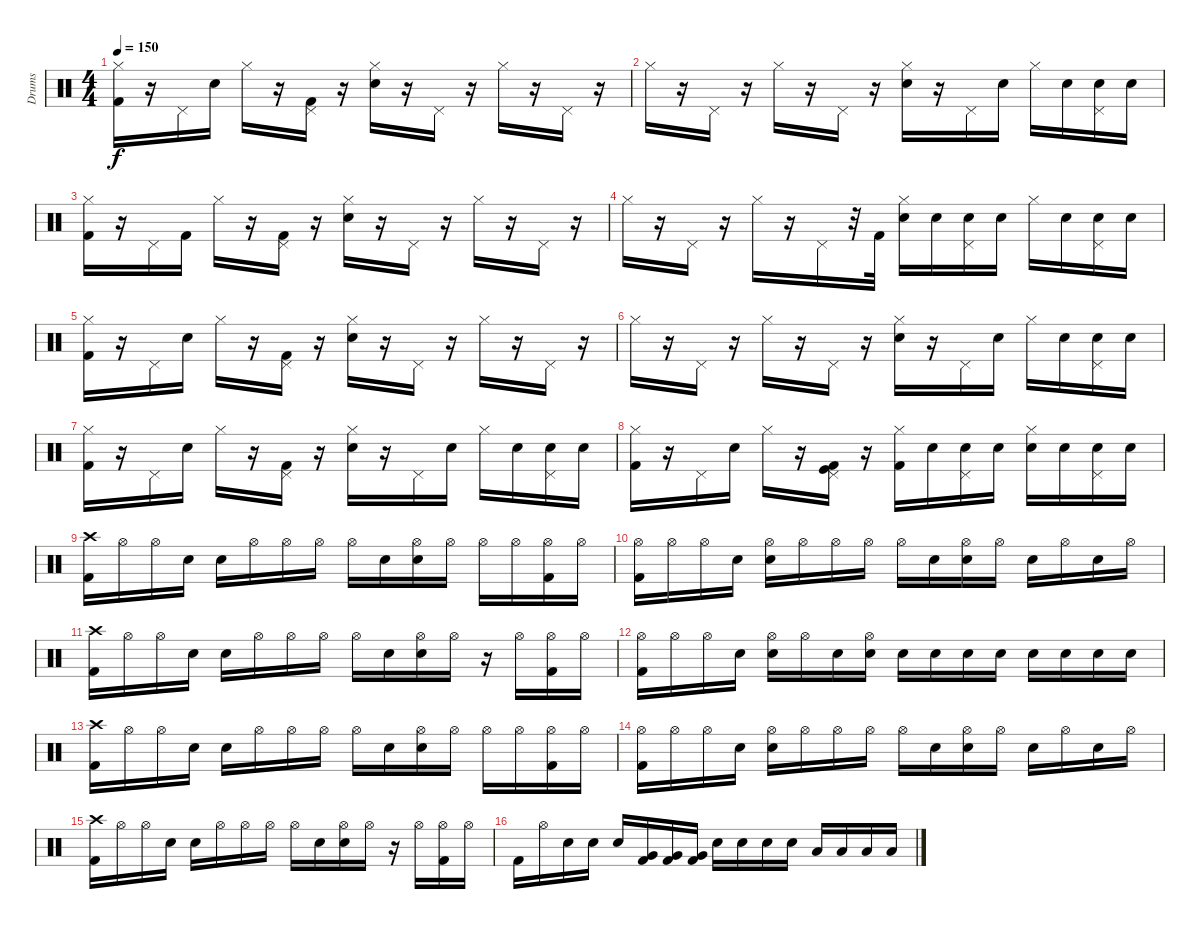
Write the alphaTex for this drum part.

\track ("Drums" "Drums") {instrument percussion}
\staff {score}
\articulation defaults
\ts (4 4)
\tempo 150
\clef neutral
\ks c
("Hi-Hat (closed)" "Kick (hit) 2").16{dy f} r.16 "Pedal Hi-Hat (hit)".16 "Electric Snare (hit)".16 "Hi-Hat (closed)".16 r.16 ("Pedal Hi-Hat (hit)" "Kick (hit) 2").16 r.16 ("Hi-Hat (closed)" "Electric Snare (hit)").16 r.16 "Pedal Hi-Hat (hit)".16 r.16 "Hi-Hat (closed)".16 r.16 "Pedal Hi-Hat (hit)".16 r.16 |
"Hi-Hat (closed)".16 r.16 "Pedal Hi-Hat (hit)".16 r.16 "Hi-Hat (closed)".16 r.16 "Pedal Hi-Hat (hit)".16 r.16 ("Hi-Hat (closed)" "Electric Snare (hit)").16 r.16 "Pedal Hi-Hat (hit)".16 "Electric Snare (hit)".16 "Hi-Hat (closed)".16 "Electric Snare (hit)".16 ("Pedal Hi-Hat (hit)" "Electric Snare (hit)").16 "Electric Snare (hit)".16 |
("Hi-Hat (closed)" "Kick (hit) 2").16 r.16 "Pedal Hi-Hat (hit)".16 "Kick (hit) 2".16 "Hi-Hat (closed)".16 r.16 ("Pedal Hi-Hat (hit)" "Kick (hit) 2").16 r.16 ("Hi-Hat (closed)" "Electric Snare (hit)").16 r.16 "Pedal Hi-Hat (hit)".16 r.16 "Hi-Hat (closed)".16 r.16 "Pedal Hi-Hat (hit)".16 r.16 |
"Hi-Hat (closed)".16 r.16 "Pedal Hi-Hat (hit)".16 r.16 "Hi-Hat (closed)".16 r.16 "Pedal Hi-Hat (hit)".16 r.32 "Kick (hit) 2".32 ("Hi-Hat (closed)" "Electric Snare (hit)").16 "Electric Snare (hit)".16 ("Pedal Hi-Hat (hit)" "Electric Snare (hit)").16 "Electric Snare (hit)".16 "Hi-Hat (closed)".16 "Electric Snare (hit)".16 ("Pedal Hi-Hat (hit)" "Electric Snare (hit)").16 "Electric Snare (hit)".16 |
("Hi-Hat (closed)" "Kick (hit) 2").16 r.16 "Pedal Hi-Hat (hit)".16 "Electric Snare (hit)".16 "Hi-Hat (closed)".16 r.16 ("Pedal Hi-Hat (hit)" "Kick (hit) 2").16 r.16 ("Hi-Hat (closed)" "Electric Snare (hit)").16 r.16 "Pedal Hi-Hat (hit)".16 r.16 "Hi-Hat (closed)".16 r.16 "Pedal Hi-Hat (hit)".16 r.16 |
"Hi-Hat (closed)".16 r.16 "Pedal Hi-Hat (hit)".16 r.16 "Hi-Hat (closed)".16 r.16 "Pedal Hi-Hat (hit)".16 r.16 ("Hi-Hat (closed)" "Electric Snare (hit)").16 r.16 "Pedal Hi-Hat (hit)".16 "Electric Snare (hit)".16 "Hi-Hat (closed)".16 "Electric Snare (hit)".16 ("Pedal Hi-Hat (hit)" "Electric Snare (hit)").16 "Electric Snare (hit)".16 |
("Hi-Hat (closed)" "Kick (hit) 2").16 r.16 "Pedal Hi-Hat (hit)".16 "Electric Snare (hit)".16 "Hi-Hat (closed)".16 r.16 ("Pedal Hi-Hat (hit)" "Kick (hit) 2").16 r.16 ("Hi-Hat (closed)" "Electric Snare (hit)").16 r.16 "Pedal Hi-Hat (hit)".16 "Electric Snare (hit)".16 "Hi-Hat (closed)".16 "Electric Snare (hit)".16 ("Pedal Hi-Hat (hit)" "Electric Snare (hit)").16 "Electric Snare (hit)".16 |
("Hi-Hat (closed)" "Kick (hit) 2").16 r.16 "Pedal Hi-Hat (hit)".16 "Electric Snare (hit)".16 "Hi-Hat (closed)".16 r.16 ("Pedal Hi-Hat (hit)" "Kick (hit)" "Kick (hit) 2").16 r.16 ("Hi-Hat (closed)" "Kick (hit) 2").16 "Electric Snare (hit)".16 ("Pedal Hi-Hat (hit)" "Electric Snare (hit)").16 "Electric Snare (hit)".16 ("Hi-Hat (closed)" "Electric Snare (hit)").16 "Electric Snare (hit)".16 ("Pedal Hi-Hat (hit)" "Electric Snare (hit)").16 "Electric Snare (hit)".16 |
("Crash high (hit)" "Kick (hit) 2").16 "Hi-Hat (open)".16 "Hi-Hat (open)".16 "Electric Snare (hit)".16 "Electric Snare (hit)".16 "Hi-Hat (open)".16 "Hi-Hat (open)".16 "Hi-Hat (open)".16 "Hi-Hat (open)".16 "Electric Snare (hit)".16 ("Hi-Hat (open)" "Electric Snare (hit)").16 "Hi-Hat (open)".16 "Hi-Hat (open)".16 "Hi-Hat (open)".16 ("Hi-Hat (open)" "Kick (hit) 2").16 "Hi-Hat (open)".16 |
("Hi-Hat (open)" "Kick (hit) 2").16 "Hi-Hat (open)".16 "Hi-Hat (open)".16 "Electric Snare (hit)".16 ("Hi-Hat (open)" "Electric Snare (hit)").16 "Hi-Hat (open)".16 "Hi-Hat (open)".16 "Hi-Hat (open)".16 "Hi-Hat (open)".16 "Electric Snare (hit)".16 ("Hi-Hat (open)" "Electric Snare (hit)").16 "Hi-Hat (open)".16 "Electric Snare (hit)".16 "Hi-Hat (open)".16 "Electric Snare (hit)".16 "Hi-Hat (open)".16 |
("Crash high (hit)" "Kick (hit) 2").16 "Hi-Hat (open)".16 "Hi-Hat (open)".16 "Electric Snare (hit)".16 "Electric Snare (hit)".16 "Hi-Hat (open)".16 "Hi-Hat (open)".16 "Hi-Hat (open)".16 "Hi-Hat (open)".16 "Electric Snare (hit)".16 ("Hi-Hat (open)" "Electric Snare (hit)").16 "Hi-Hat (open)".16 r.16 "Hi-Hat (open)".16 ("Hi-Hat (open)" "Kick (hit) 2").16 "Hi-Hat (open)".16 |
("Hi-Hat (open)" "Kick (hit) 2").16 "Hi-Hat (open)".16 "Hi-Hat (open)".16 "Electric Snare (hit)".16 ("Hi-Hat (open)" "Electric Snare (hit)").16 "Hi-Hat (open)".16 "Electric Snare (hit)".16 ("Hi-Hat (open)" "Electric Snare (hit)").16 "Electric Snare (hit)".16 "Electric Snare (hit)".16 "Electric Snare (hit)".16 "Electric Snare (hit)".16 "Electric Snare (hit)".16 "Electric Snare (hit)".16 "Electric Snare (hit)".16 "Electric Snare (hit)".16 |
("Crash high (hit)" "Kick (hit) 2").16 "Hi-Hat (open)".16 "Hi-Hat (open)".16 "Electric Snare (hit)".16 "Electric Snare (hit)".16 "Hi-Hat (open)".16 "Hi-Hat (open)".16 "Hi-Hat (open)".16 "Hi-Hat (open)".16 "Electric Snare (hit)".16 ("Hi-Hat (open)" "Electric Snare (hit)").16 "Hi-Hat (open)".16 "Hi-Hat (open)".16 "Hi-Hat (open)".16 ("Hi-Hat (open)" "Kick (hit) 2").16 "Hi-Hat (open)".16 |
("Hi-Hat (open)" "Kick (hit) 2").16 "Hi-Hat (open)".16 "Hi-Hat (open)".16 "Electric Snare (hit)".16 ("Hi-Hat (open)" "Electric Snare (hit)").16 "Hi-Hat (open)".16 "Hi-Hat (open)".16 "Hi-Hat (open)".16 "Hi-Hat (open)".16 "Electric Snare (hit)".16 ("Hi-Hat (open)" "Electric Snare (hit)").16 "Hi-Hat (open)".16 "Electric Snare (hit)".16 "Hi-Hat (open)".16 "Electric Snare (hit)".16 "Hi-Hat (open)".16 |
("Crash high (hit)" "Kick (hit) 2").16 "Hi-Hat (open)".16 "Hi-Hat (open)".16 "Electric Snare (hit)".16 "Electric Snare (hit)".16 "Hi-Hat (open)".16 "Hi-Hat (open)".16 "Hi-Hat (open)".16 "Hi-Hat (open)".16 "Electric Snare (hit)".16 ("Hi-Hat (open)" "Electric Snare (hit)").16 "Hi-Hat (open)".16 r.16 "Hi-Hat (open)".16 ("Hi-Hat (open)" "Kick (hit) 2").16 "Hi-Hat (open)".16 |
"Kick (hit) 2".16 "Hi-Hat (open)".16 "Electric Snare (hit)".16 "Electric Snare (hit)".16 "Electric Snare (hit)".16 ("Very Low Tom (hit)" "Kick (hit) 2").16 ("Very Low Tom (hit)" "Kick (hit) 2").16 ("Very Low Tom (hit)" "Kick (hit) 2").16 "Electric Snare (hit)".16 "Electric Snare (hit)".16 "Electric Snare (hit)".16 "Electric Snare (hit)".16 "Low Floor Tom (hit)".16 "Low Floor Tom (hit)".16 "Low Floor Tom (hit)".16 "Low Floor Tom (hit)".16
